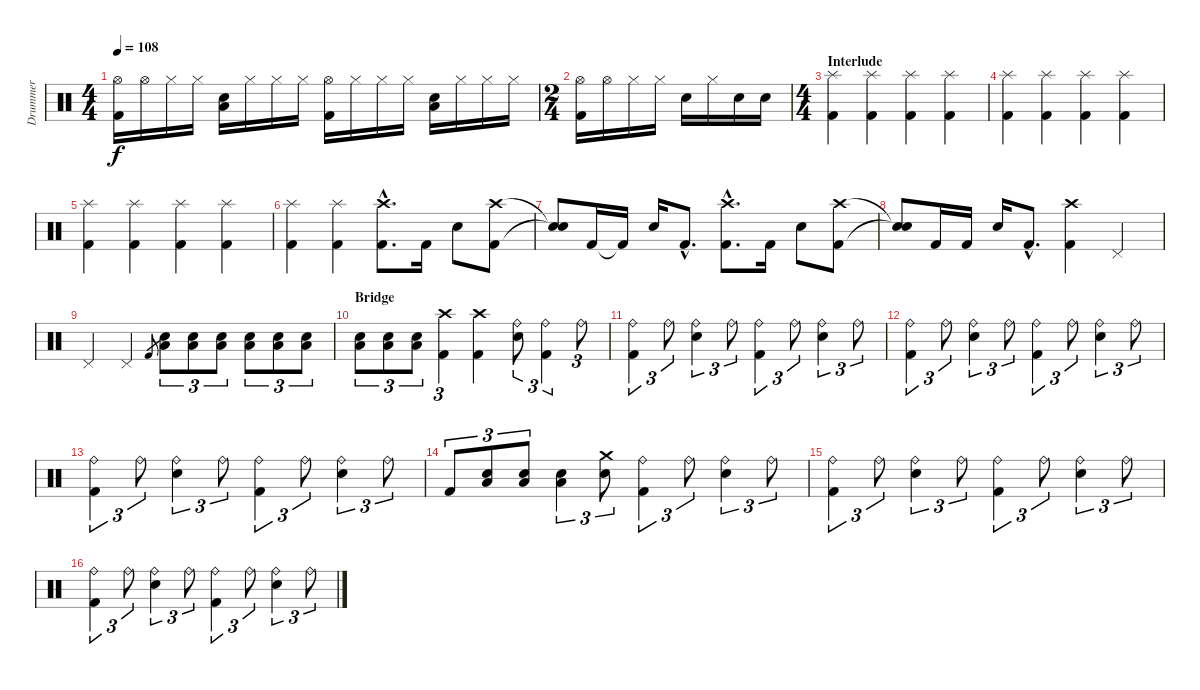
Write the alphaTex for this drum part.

\track ("Drummer" "Drummer") {instrument percussion}
\staff {score}
\articulation defaults
\ts (4 4)
\tempo 108
\clef neutral
\ks c
("Hi-Hat (open)" "Kick (hit) 2").16{dy f} "Hi-Hat (open)".16 "Hi-Hat (closed)".16 "Hi-Hat (closed)".16 ("Low Floor Tom (hit)" "Electric Snare (hit)").16 "Hi-Hat (closed)".16 "Hi-Hat (closed)".16 "Hi-Hat (closed)".16 ("Hi-Hat (open)" "Kick (hit) 2").16 "Hi-Hat (closed)".16 "Hi-Hat (closed)".16 "Hi-Hat (closed)".16 ("Low Floor Tom (hit)" "Electric Snare (hit)").16 "Hi-Hat (closed)".16 "Hi-Hat (closed)".16 "Hi-Hat (closed)".16 |
\ts (2 4)
("Hi-Hat (open)" "Kick (hit) 2").16 "Hi-Hat (open)".16 "Hi-Hat (closed)".16 "Hi-Hat (closed)".16 "Electric Snare (hit)".16 "Hi-Hat (closed)".16 "Electric Snare (hit)".16 "Electric Snare (hit)".16 |
\ts (4 4)
\section ("" "Interlude")
("Splash (hit)" "Kick (hit) 2").4 ("Splash (hit)" "Kick (hit) 2").4 ("Splash (hit)" "Kick (hit) 2").4 ("Splash (hit)" "Kick (hit) 2").4 |
("Splash (hit)" "Kick (hit) 2").4 ("Splash (hit)" "Kick (hit) 2").4 ("Splash (hit)" "Kick (hit) 2").4 ("Splash (hit)" "Kick (hit) 2").4 |
("Splash (hit)" "Kick (hit) 2").4 ("Splash (hit)" "Kick (hit) 2").4 ("Splash (hit)" "Kick (hit) 2").4 ("Splash (hit)" "Kick (hit) 2").4 |
("Splash (hit)" "Kick (hit) 2").4 ("Splash (hit)" "Kick (hit) 2").4 ("Crash high (hit)"{hac} "Kick (hit) 2"{hac}).8{d} "Kick (hit) 2".16 "Electric Snare (hit)".8 ("Crash high (hit)" "Kick (hit) 2").8 |
("Snare (hit)"{t} "Snare (hit)"{t}).8 "Kick (hit) 2".16 "Kick (hit) 2"{t}.16 "Electric Snare (hit)".16 "Kick (hit) 2"{hac}.8{d} ("Crash high (hit)"{hac} "Kick (hit) 2"{hac}).8{d} "Kick (hit) 2".16 "Electric Snare (hit)".8 ("Crash high (hit)" "Kick (hit) 2").8 |
("Snare (hit)"{t} "Snare (hit)"{t}).8 "Kick (hit) 2".16 "Kick (hit) 2".16 "Electric Snare (hit)".16 "Kick (hit) 2"{hac}.8{d} ("Crash high (hit)" "Kick (hit) 2").4 "Pedal Hi-Hat (hit)".4 |
"Pedal Hi-Hat (hit)".4 "Pedal Hi-Hat (hit)".4 "Kick (hit) 2".8{gr} ("Low Floor Tom (hit)" "Electric Snare (hit)").8{tu (3 2)} ("Low Floor Tom (hit)" "Electric Snare (hit)").8{tu (3 2)} ("Low Floor Tom (hit)" "Electric Snare (hit)").8{tu (3 2)} ("Low Floor Tom (hit)" "Electric Snare (hit)").8{tu (3 2)} ("Low Floor Tom (hit)" "Electric Snare (hit)").8{tu (3 2)} ("Low Floor Tom (hit)" "Electric Snare (hit)").8{tu (3 2)} |
\section ("" "Bridge")
("Low Floor Tom (hit)" "Electric Snare (hit)").8{tu (3 2)} ("Low Floor Tom (hit)" "Electric Snare (hit)").8{tu (3 2)} ("Low Floor Tom (hit)" "Electric Snare (hit)").8{tu (3 2)} ("Crash high (hit)" "Kick (hit) 2").4{tu (3 2)} ("Crash high (hit)" "Kick (hit) 2").4 ("Ride (bell)" "Electric Snare (hit)").8{tu (3 2)} ("Ride (bell)" "Kick (hit) 2").4{tu (3 2)} "Ride (bell)".8{tu (3 2)} |
("Ride (bell)" "Kick (hit) 2").4{tu (3 2)} "Ride (bell)".8{tu (3 2)} ("Ride (bell)" "Electric Snare (hit)").4{tu (3 2)} "Ride (bell)".8{tu (3 2)} ("Ride (bell)" "Kick (hit) 2").4{tu (3 2)} "Ride (bell)".8{tu (3 2)} ("Ride (bell)" "Electric Snare (hit)").4{tu (3 2)} "Ride (bell)".8{tu (3 2)} |
("Ride (bell)" "Kick (hit) 2").4{tu (3 2)} "Ride (bell)".8{tu (3 2)} ("Ride (bell)" "Electric Snare (hit)").4{tu (3 2)} "Ride (bell)".8{tu (3 2)} ("Ride (bell)" "Kick (hit) 2").4{tu (3 2)} "Ride (bell)".8{tu (3 2)} ("Ride (bell)" "Electric Snare (hit)").4{tu (3 2)} "Ride (bell)".8{tu (3 2)} |
("Ride (bell)" "Kick (hit) 2").4{tu (3 2)} "Ride (bell)".8{tu (3 2)} ("Ride (bell)" "Electric Snare (hit)").4{tu (3 2)} "Ride (bell)".8{tu (3 2)} ("Ride (bell)" "Kick (hit) 2").4{tu (3 2)} "Ride (bell)".8{tu (3 2)} ("Ride (bell)" "Electric Snare (hit)").4{tu (3 2)} "Ride (bell)".8{tu (3 2)} |
"Kick (hit) 2".8{tu (3 2)} ("Low Floor Tom (hit)" "Electric Snare (hit)").8{tu (3 2)} ("Low Floor Tom (hit)" "Electric Snare (hit)").8{tu (3 2)} ("Low Floor Tom (hit)" "Electric Snare (hit)").4{tu (3 2)} ("Crash medium (hit)" "Electric Snare (hit)").8{tu (3 2)} ("Ride (bell)" "Kick (hit) 2").4{tu (3 2)} "Ride (bell)".8{tu (3 2)} ("Ride (bell)" "Electric Snare (hit)").4{tu (3 2)} "Ride (bell)".8{tu (3 2)} |
("Ride (bell)" "Kick (hit) 2").4{tu (3 2)} "Ride (bell)".8{tu (3 2)} ("Ride (bell)" "Electric Snare (hit)").4{tu (3 2)} "Ride (bell)".8{tu (3 2)} ("Ride (bell)" "Kick (hit) 2").4{tu (3 2)} "Ride (bell)".8{tu (3 2)} ("Ride (bell)" "Electric Snare (hit)").4{tu (3 2)} "Ride (bell)".8{tu (3 2)} |
("Ride (bell)" "Kick (hit) 2").4{tu (3 2)} "Ride (bell)".8{tu (3 2)} ("Ride (bell)" "Electric Snare (hit)").4{tu (3 2)} "Ride (bell)".8{tu (3 2)} ("Ride (bell)" "Kick (hit) 2").4{tu (3 2)} "Ride (bell)".8{tu (3 2)} ("Ride (bell)" "Electric Snare (hit)").4{tu (3 2)} "Ride (bell)".8{tu (3 2)}
